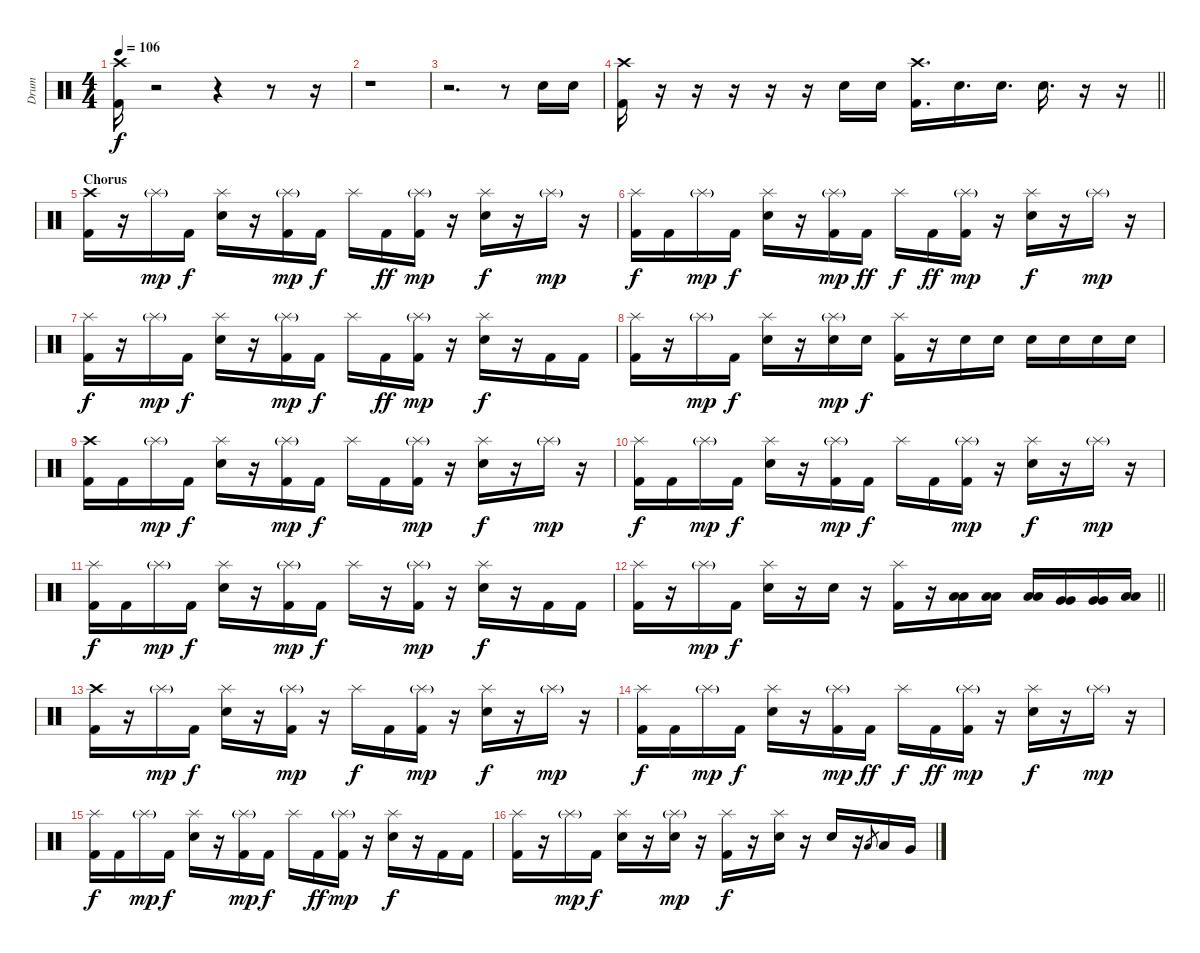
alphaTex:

\track ("Drum" "Drum") {instrument percussion}
\staff {score}
\articulation defaults
\ts (4 4)
\tempo 106
\clef neutral
\ks c
("Crash high (hit)" "Kick (hit) 2").16{dy f} r.2 r.4 r.8 r.16 |
r.1 |
r.2{d} r.8 "Electric Snare (hit)".16 "Electric Snare (hit)".16 |
\barLineRight lightlight
("Crash high (hit)" "Kick (hit) 2").16 r.16 r.16 r.16 r.16 r.16 "Electric Snare (hit)".16 "Electric Snare (hit)".16 ("Crash high (hit)" "Kick (hit) 2").16{d} "Electric Snare (hit)".16{d} "Electric Snare (hit)".16{d} "Electric Snare (hit)".16{d} r.16 r.16 |
\section ("" "Chorus")
("Crash high (hit)" "Kick (hit) 2").16 r.16 "Splash (hit)"{g}.16{dy mp} "Kick (hit) 2".16{dy f} ("Splash (hit)" "Electric Snare (hit)").16 r.16 ("Splash (hit)"{g} "Kick (hit) 2").16{dy mp} "Kick (hit) 2".16{dy f} "Splash (hit)".16 "Kick (hit) 2".16{dy ff} ("Splash (hit)"{g} "Kick (hit) 2").16{dy mp} r.16 ("Splash (hit)" "Electric Snare (hit)").16{dy f} r.16 "Splash (hit)"{g}.16{dy mp} r.16 |
("Splash (hit)" "Kick (hit) 2").16{dy f} "Kick (hit) 2".16 "Splash (hit)"{g}.16{dy mp} "Kick (hit) 2".16{dy f} ("Splash (hit)" "Electric Snare (hit)").16 r.16 ("Splash (hit)"{g} "Kick (hit) 2").16{dy mp} "Kick (hit) 2".16{dy ff} "Splash (hit)".16{dy f} "Kick (hit) 2".16{dy ff} ("Splash (hit)"{g} "Kick (hit) 2").16{dy mp} r.16 ("Splash (hit)" "Electric Snare (hit)").16{dy f} r.16 "Splash (hit)"{g}.16{dy mp} r.16 |
("Splash (hit)" "Kick (hit) 2").16{dy f} r.16 "Splash (hit)"{g}.16{dy mp} "Kick (hit) 2".16{dy f} ("Splash (hit)" "Electric Snare (hit)").16 r.16 ("Splash (hit)"{g} "Kick (hit) 2").16{dy mp} "Kick (hit) 2".16{dy f} "Splash (hit)".16 "Kick (hit) 2".16{dy ff} ("Splash (hit)"{g} "Kick (hit) 2").16{dy mp} r.16 ("Splash (hit)" "Electric Snare (hit)").16{dy f} r.16 "Kick (hit) 2".16 "Kick (hit) 2".16 |
("Splash (hit)" "Kick (hit) 2").16 r.16 "Splash (hit)"{g}.16{dy mp} "Kick (hit) 2".16{dy f} ("Splash (hit)" "Electric Snare (hit)").16 r.16 ("Splash (hit)"{g} "Electric Snare (hit)").16{dy mp} "Electric Snare (hit)".16{dy f} ("Splash (hit)" "Kick (hit) 2").16 r.16 "Electric Snare (hit)".16 "Electric Snare (hit)".16 "Electric Snare (hit)".16 "Electric Snare (hit)".16 "Electric Snare (hit)".16 "Electric Snare (hit)".16 |
("Crash high (hit)" "Kick (hit) 2").16 "Kick (hit) 2".16 "Splash (hit)"{g}.16{dy mp} "Kick (hit) 2".16{dy f} ("Splash (hit)" "Electric Snare (hit)").16 r.16 ("Splash (hit)"{g} "Kick (hit) 2").16{dy mp} "Kick (hit) 2".16{dy f} "Splash (hit)".16 "Kick (hit) 2".16 ("Splash (hit)"{g} "Kick (hit) 2").16{dy mp} r.16 ("Splash (hit)" "Electric Snare (hit)").16{dy f} r.16 "Splash (hit)"{g}.16{dy mp} r.16 |
("Splash (hit)" "Kick (hit) 2").16{dy f} "Kick (hit) 2".16 "Splash (hit)"{g}.16{dy mp} "Kick (hit) 2".16{dy f} ("Splash (hit)" "Electric Snare (hit)").16 r.16 ("Splash (hit)"{g} "Kick (hit) 2").16{dy mp} "Kick (hit) 2".16{dy f} "Splash (hit)".16 "Kick (hit) 2".16 ("Splash (hit)"{g} "Kick (hit) 2").16{dy mp} r.16 ("Splash (hit)" "Electric Snare (hit)").16{dy f} r.16 "Splash (hit)"{g}.16{dy mp} r.16 |
("Splash (hit)" "Kick (hit) 2").16{dy f} "Kick (hit) 2".16 "Splash (hit)"{g}.16{dy mp} "Kick (hit) 2".16{dy f} ("Splash (hit)" "Electric Snare (hit)").16 r.16 ("Splash (hit)"{g} "Kick (hit) 2").16{dy mp} "Kick (hit) 2".16{dy f} "Splash (hit)".16 r.16 ("Splash (hit)"{g} "Kick (hit) 2").16{dy mp} r.16 ("Splash (hit)" "Electric Snare (hit)").16{dy f} r.16 "Kick (hit) 2".16 "Kick (hit) 2".16 |
\barLineRight lightlight
("Splash (hit)" "Kick (hit) 2").16 r.16 "Splash (hit)"{g}.16{dy mp} "Kick (hit) 2".16{dy f} ("Splash (hit)" "Electric Snare (hit)").16 r.16 "Electric Snare (hit)".16 r.16 ("Splash (hit)" "Kick (hit) 2").16 r.16 ("Low Tom (hit)" "Low Tom (hit)").16 ("Low Tom (hit)" "Low Tom (hit)").16 ("Low Tom (hit)" "Low Tom (hit)").16 ("Very Low Tom (hit)" "Very Low Tom (hit)").16 ("Very Low Tom (hit)" "Very Low Tom (hit)").16 ("Low Floor Tom (hit)" "Low Floor Tom (hit)").16 |
\section ("" "")
("Crash high (hit)" "Kick (hit) 2").16 r.16 "Splash (hit)"{g}.16{dy mp} "Kick (hit) 2".16{dy f} ("Splash (hit)" "Electric Snare (hit)").16 r.16 ("Splash (hit)"{g} "Kick (hit) 2").16{dy mp} r.16 "Splash (hit)".16{dy f} "Kick (hit) 2".16 ("Splash (hit)"{g} "Kick (hit) 2").16{dy mp} r.16 ("Splash (hit)" "Electric Snare (hit)").16{dy f} r.16 "Splash (hit)"{g}.16{dy mp} r.16 |
("Splash (hit)" "Kick (hit) 2").16{dy f} "Kick (hit) 2".16 "Splash (hit)"{g}.16{dy mp} "Kick (hit) 2".16{dy f} ("Splash (hit)" "Electric Snare (hit)").16 r.16 ("Splash (hit)"{g} "Kick (hit) 2").16{dy mp} "Kick (hit) 2".16{dy ff} "Splash (hit)".16{dy f} "Kick (hit) 2".16{dy ff} ("Splash (hit)"{g} "Kick (hit) 2").16{dy mp} r.16 ("Splash (hit)" "Electric Snare (hit)").16{dy f} r.16 "Splash (hit)"{g}.16{dy mp} r.16 |
("Splash (hit)" "Kick (hit) 2").16{dy f} "Kick (hit) 2".16 "Splash (hit)"{g}.16{dy mp} "Kick (hit) 2".16{dy f} ("Splash (hit)" "Electric Snare (hit)").16 r.16 ("Splash (hit)"{g} "Kick (hit) 2").16{dy mp} "Kick (hit) 2".16{dy f} "Splash (hit)".16 "Kick (hit) 2".16{dy ff} ("Splash (hit)"{g} "Kick (hit) 2").16{dy mp} r.16 ("Splash (hit)" "Electric Snare (hit)").16{dy f} r.16 "Kick (hit) 2".16 "Kick (hit) 2".16 |
("Splash (hit)" "Kick (hit) 2").16 r.16 "Splash (hit)"{g}.16{dy mp} "Kick (hit) 2".16{dy f} ("Splash (hit)" "Electric Snare (hit)").16 r.16 ("Splash (hit)"{g} "Electric Snare (hit)").16{dy mp} r.16 ("Splash (hit)" "Kick (hit) 2").16{dy f} r.16 ("Splash (hit)" "Electric Snare (hit)").16 r.16 "Electric Snare (hit)".16 r.16 "Low Tom (hit)".8{gr} "Low Tom (hit)".16 "Very Low Tom (hit)".16
